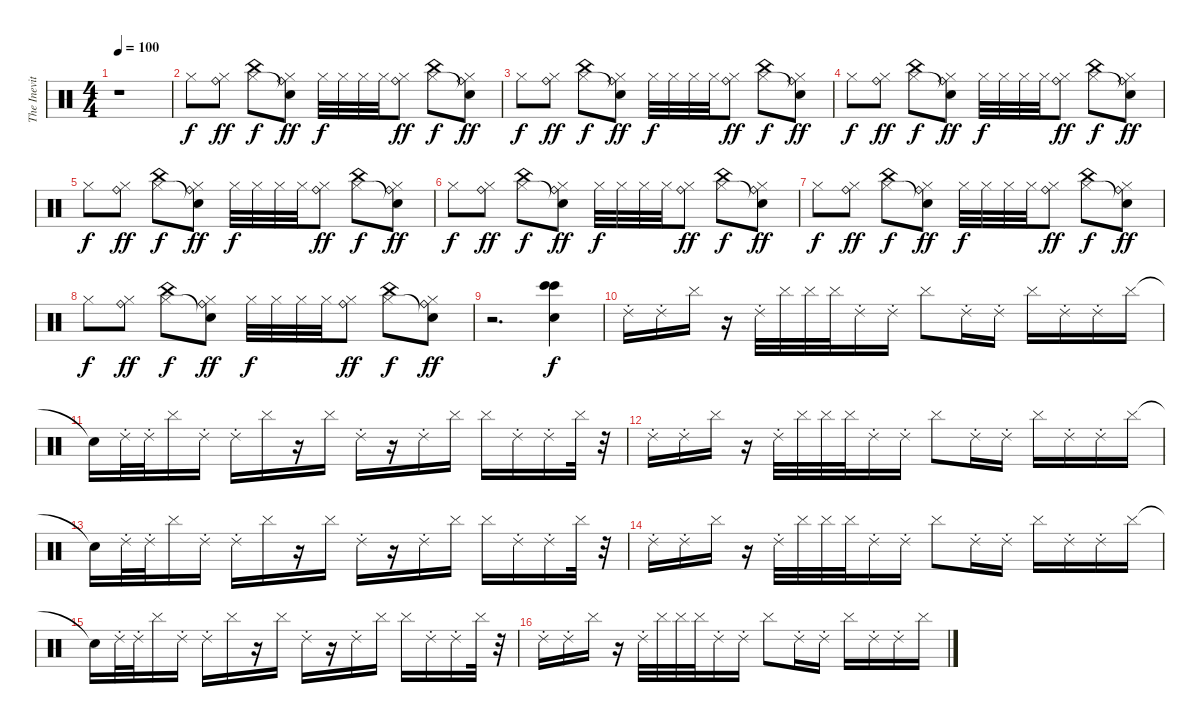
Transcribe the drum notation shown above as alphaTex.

\track ("The Inevitable" "The Inevit") {instrument percussion}
\staff {score}
\articulation defaults
\ts (4 4)
\tempo 100
\clef neutral
\ks c
r.1{dy f} |
"Hi-Hat (closed)".8 ("Ride (bell)" "Hi-Hat (closed)").8{dy ff} ("China (hit)" "Hi-Hat (closed)").8{dy f} ("Ride (bell)" "Snare (hit)"{t} "Hi-Hat (closed)").8{dy ff} "Hi-Hat (closed)".32{dy f} "Hi-Hat (closed)".32 "Hi-Hat (closed)".32 "Hi-Hat (closed)".32 ("Ride (bell)" "Hi-Hat (closed)").8{dy ff} ("China (hit)" "Hi-Hat (closed)").8{dy f} ("Ride (bell)" "Snare (hit)"{t} "Hi-Hat (closed)").8{dy ff} |
"Hi-Hat (closed)".8{dy f} ("Ride (bell)" "Hi-Hat (closed)").8{dy ff} ("China (hit)" "Hi-Hat (closed)").8{dy f} ("Ride (bell)" "Snare (hit)"{t} "Hi-Hat (closed)").8{dy ff} "Hi-Hat (closed)".32{dy f} "Hi-Hat (closed)".32 "Hi-Hat (closed)".32 "Hi-Hat (closed)".32 ("Ride (bell)" "Hi-Hat (closed)").8{dy ff} ("China (hit)" "Hi-Hat (closed)").8{dy f} ("Ride (bell)" "Snare (hit)"{t} "Hi-Hat (closed)").8{dy ff} |
"Hi-Hat (closed)".8{dy f} ("Ride (bell)" "Hi-Hat (closed)").8{dy ff} ("China (hit)" "Hi-Hat (closed)").8{dy f} ("Ride (bell)" "Snare (hit)"{t} "Hi-Hat (closed)").8{dy ff} "Hi-Hat (closed)".32{dy f} "Hi-Hat (closed)".32 "Hi-Hat (closed)".32 "Hi-Hat (closed)".32 ("Ride (bell)" "Hi-Hat (closed)").8{dy ff} ("China (hit)" "Hi-Hat (closed)").8{dy f} ("Ride (bell)" "Snare (hit)"{t} "Hi-Hat (closed)").8{dy ff} |
"Hi-Hat (closed)".8{dy f} ("Ride (bell)" "Hi-Hat (closed)").8{dy ff} ("China (hit)" "Hi-Hat (closed)").8{dy f} ("Ride (bell)" "Snare (hit)"{t} "Hi-Hat (closed)").8{dy ff} "Hi-Hat (closed)".32{dy f} "Hi-Hat (closed)".32 "Hi-Hat (closed)".32 "Hi-Hat (closed)".32 ("Ride (bell)" "Hi-Hat (closed)").8{dy ff} ("China (hit)" "Hi-Hat (closed)").8{dy f} ("Ride (bell)" "Snare (hit)"{t} "Hi-Hat (closed)").8{dy ff} |
"Hi-Hat (closed)".8{dy f} ("Ride (bell)" "Hi-Hat (closed)").8{dy ff} ("China (hit)" "Hi-Hat (closed)").8{dy f} ("Ride (bell)" "Snare (hit)"{t} "Hi-Hat (closed)").8{dy ff} "Hi-Hat (closed)".32{dy f} "Hi-Hat (closed)".32 "Hi-Hat (closed)".32 "Hi-Hat (closed)".32 ("Ride (bell)" "Hi-Hat (closed)").8{dy ff} ("China (hit)" "Hi-Hat (closed)").8{dy f} ("Ride (bell)" "Snare (hit)"{t} "Hi-Hat (closed)").8{dy ff} |
"Hi-Hat (closed)".8{dy f} ("Ride (bell)" "Hi-Hat (closed)").8{dy ff} ("China (hit)" "Hi-Hat (closed)").8{dy f} ("Ride (bell)" "Snare (hit)"{t} "Hi-Hat (closed)").8{dy ff} "Hi-Hat (closed)".32{dy f} "Hi-Hat (closed)".32 "Hi-Hat (closed)".32 "Hi-Hat (closed)".32 ("Ride (bell)" "Hi-Hat (closed)").8{dy ff} ("China (hit)" "Hi-Hat (closed)").8{dy f} ("Ride (bell)" "Snare (hit)"{t} "Hi-Hat (closed)").8{dy ff} |
"Hi-Hat (closed)".8{dy f} ("Ride (bell)" "Hi-Hat (closed)").8{dy ff} ("China (hit)" "Hi-Hat (closed)").8{dy f} ("Ride (bell)" "Snare (hit)"{t} "Hi-Hat (closed)").8{dy ff} "Hi-Hat (closed)".32{dy f} "Hi-Hat (closed)".32 "Hi-Hat (closed)".32 "Hi-Hat (closed)".32 ("Ride (bell)" "Hi-Hat (closed)").8{dy ff} ("China (hit)" "Hi-Hat (closed)").8{dy f} ("Ride (bell)" "Snare (hit)"{t} "Hi-Hat (closed)").8{dy ff} |
r.2{d} ("Bongo High (hit)" "Bongo High (hit)" "Snare (hit) 2").4{dy f} |
"Ride (choke) 2".16 "Ride (choke) 2".16 "Cymbal (hit)".16 r.16 "Ride (choke) 2".32 "Cymbal (hit)".32 "Cymbal (hit)".32 "Cymbal (hit)".32 "Ride (choke) 2".16 "Ride (choke) 2".16 "Cymbal (hit)".8 "Ride (choke) 2".16 "Ride (choke) 2".16 "Cymbal (hit)".16 "Ride (choke) 2".16 "Ride (choke) 2".16 "Cymbal (hit)".16 |
"Snare (hit)"{t}.16 "Ride (choke) 2".32 "Ride (choke) 2".32 "Cymbal (hit)".16 "Ride (choke) 2".16 "Ride (choke) 2".16 "Cymbal (hit)".16 r.16 "Cymbal (hit)".16 "Ride (choke) 2".16 r.16 "Ride (choke) 2".16 "Cymbal (hit)".16 "Cymbal (hit)".16 "Ride (choke) 2".16 "Ride (choke) 2".16 "Cymbal (hit)".32 r.32 |
"Ride (choke) 2".16 "Ride (choke) 2".16 "Cymbal (hit)".16 r.16 "Ride (choke) 2".32 "Cymbal (hit)".32 "Cymbal (hit)".32 "Cymbal (hit)".32 "Ride (choke) 2".16 "Ride (choke) 2".16 "Cymbal (hit)".8 "Ride (choke) 2".16 "Ride (choke) 2".16 "Cymbal (hit)".16 "Ride (choke) 2".16 "Ride (choke) 2".16 "Cymbal (hit)".16 |
"Snare (hit)"{t}.16 "Ride (choke) 2".32 "Ride (choke) 2".32 "Cymbal (hit)".16 "Ride (choke) 2".16 "Ride (choke) 2".16 "Cymbal (hit)".16 r.16 "Cymbal (hit)".16 "Ride (choke) 2".16 r.16 "Ride (choke) 2".16 "Cymbal (hit)".16 "Cymbal (hit)".16 "Ride (choke) 2".16 "Ride (choke) 2".16 "Cymbal (hit)".32 r.32 |
"Ride (choke) 2".16 "Ride (choke) 2".16 "Cymbal (hit)".16 r.16 "Ride (choke) 2".32 "Cymbal (hit)".32 "Cymbal (hit)".32 "Cymbal (hit)".32 "Ride (choke) 2".16 "Ride (choke) 2".16 "Cymbal (hit)".8 "Ride (choke) 2".16 "Ride (choke) 2".16 "Cymbal (hit)".16 "Ride (choke) 2".16 "Ride (choke) 2".16 "Cymbal (hit)".16 |
"Snare (hit)"{t}.16 "Ride (choke) 2".32 "Ride (choke) 2".32 "Cymbal (hit)".16 "Ride (choke) 2".16 "Ride (choke) 2".16 "Cymbal (hit)".16 r.16 "Cymbal (hit)".16 "Ride (choke) 2".16 r.16 "Ride (choke) 2".16 "Cymbal (hit)".16 "Cymbal (hit)".16 "Ride (choke) 2".16 "Ride (choke) 2".16 "Cymbal (hit)".32 r.32 |
"Ride (choke) 2".16 "Ride (choke) 2".16 "Cymbal (hit)".16 r.16 "Ride (choke) 2".32 "Cymbal (hit)".32 "Cymbal (hit)".32 "Cymbal (hit)".32 "Ride (choke) 2".16 "Ride (choke) 2".16 "Cymbal (hit)".8 "Ride (choke) 2".16 "Ride (choke) 2".16 "Cymbal (hit)".16 "Ride (choke) 2".16 "Ride (choke) 2".16 "Cymbal (hit)".16
